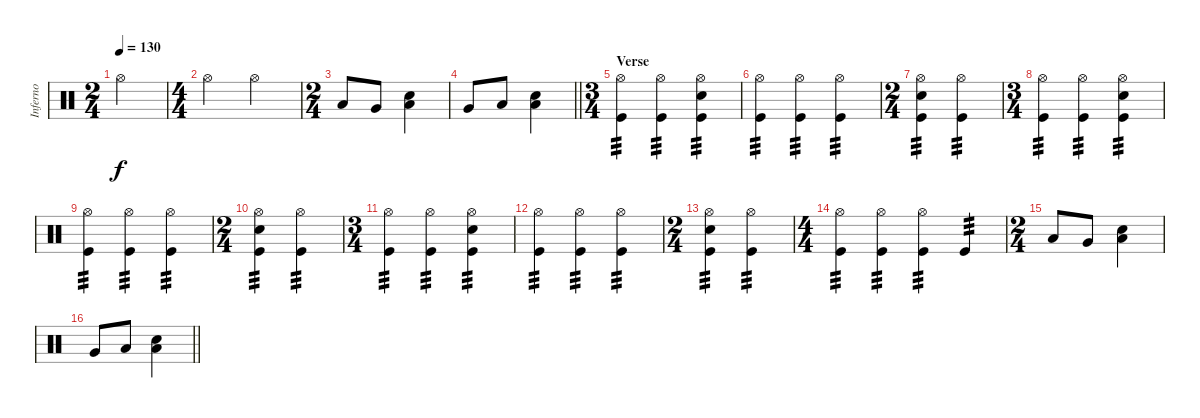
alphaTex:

\track ("Inferno" "Inferno") {instrument percussion}
\staff {score}
\articulation defaults
\ts (2 4)
\tempo 130
\clef neutral
\ks c "Hi-Hat (open)".2{dy f}
|
\ts (4 4)
"Hi-Hat (open)".2 "Hi-Hat (open)".2 |
\ts (2 4)
"Low Tom (hit)".8 "Very Low Tom (hit)".8 ("Snare (hit) 2" "Low Floor Tom (hit)").4 |
\barLineRight lightlight "Very Low Tom (hit)".8 "Low Floor Tom (hit)".8
("Low Floor Tom (hit)" "Snare (hit) 2").4 |
\ts (3 4)
\section ("" "Verse")
("Hi-Hat (open)" "Kick (hit)").4{tp 3} ("Hi-Hat (open)" "Kick (hit)").4{tp 3} ("Hi-Hat (open)" "Snare (hit) 2" "Kick (hit)").4{tp 3} |
("Hi-Hat (open)" "Kick (hit)").4{tp 3} ("Hi-Hat (open)" "Kick (hit)").4{tp 3} ("Hi-Hat (open)" "Kick (hit)").4{tp 3} |
\ts (2 4)
("Hi-Hat (open)" "Snare (hit) 2" "Kick (hit)").4{tp 3} ("Hi-Hat (open)" "Kick (hit)").4{tp 3} |
\ts (3 4)
("Hi-Hat (open)" "Kick (hit)").4{tp 3} ("Hi-Hat (open)" "Kick (hit)").4{tp 3} ("Hi-Hat (open)" "Snare (hit) 2" "Kick (hit)").4{tp 3} |
("Hi-Hat (open)" "Kick (hit)").4{tp 3} ("Hi-Hat (open)" "Kick (hit)").4{tp 3} ("Hi-Hat (open)" "Kick (hit)").4{tp 3} |
\ts (2 4)
("Hi-Hat (open)" "Snare (hit) 2" "Kick (hit)").4{tp 3} ("Hi-Hat (open)" "Kick (hit)").4{tp 3} |
\ts (3 4)
("Hi-Hat (open)" "Kick (hit)").4{tp 3} ("Hi-Hat (open)" "Kick (hit)").4{tp 3} ("Hi-Hat (open)" "Snare (hit) 2" "Kick (hit)").4{tp 3} |
("Hi-Hat (open)" "Kick (hit)").4{tp 3} ("Hi-Hat (open)" "Kick (hit)").4{tp 3} ("Hi-Hat (open)" "Kick (hit)").4{tp 3} |
\ts (2 4)
("Hi-Hat (open)" "Snare (hit) 2" "Kick (hit)").4{tp 3} ("Hi-Hat (open)" "Kick (hit)").4{tp 3} |
\ts (4 4)
("Hi-Hat (open)" "Kick (hit)").4{tp 3} ("Hi-Hat (open)" "Kick (hit)").4{tp 3} ("Hi-Hat (open)" "Kick (hit)").4{tp 3} "Kick (hit)".4{tp 3} |
\ts (2 4)
"Low Tom (hit)".8 "Very Low Tom (hit)".8 ("Snare (hit) 2" "Low Floor Tom (hit)").4 |
\barLineRight lightlight "Very Low Tom (hit)".8 "Low Floor Tom (hit)".8
("Low Floor Tom (hit)" "Snare (hit) 2").4
